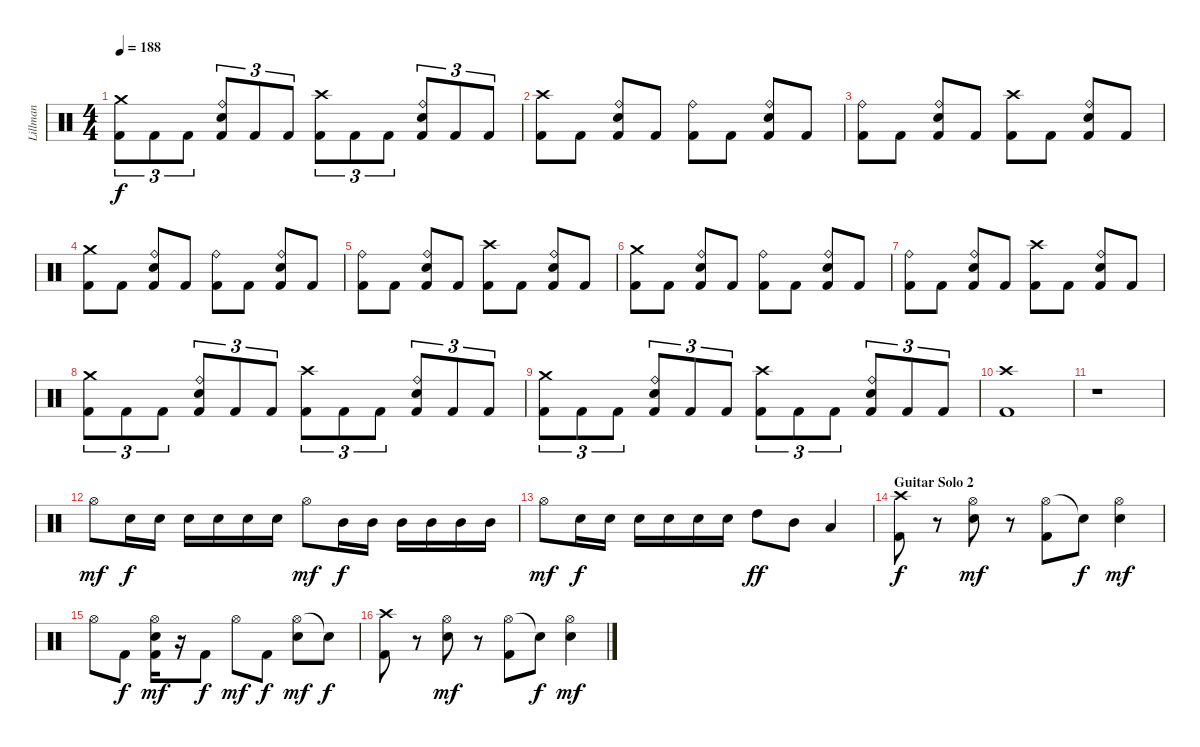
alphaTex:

\track ("Lillman" "Lillman") {instrument percussion}
\staff {score}
\articulation defaults
\ts (4 4)
\tempo 188
\clef neutral
\ks c
("Crash medium (hit)" "Kick (hit) 2").8{tu (3 2) dy f} "Kick (hit) 2".8{tu (3 2)} "Kick (hit) 2".8{tu (3 2)} ("Ride (bell)" "Snare (hit) 2" "Kick (hit) 2").8{tu (3 2)} "Kick (hit) 2".8{tu (3 2)} "Kick (hit) 2".8{tu (3 2)} ("Crash high (hit)" "Kick (hit) 2").8{tu (3 2)} "Kick (hit) 2".8{tu (3 2)} "Kick (hit) 2".8{tu (3 2)} ("Ride (bell)" "Snare (hit) 2" "Kick (hit) 2").8{tu (3 2)} "Kick (hit) 2".8{tu (3 2)} "Kick (hit) 2".8{tu (3 2)} |
("Crash high (hit)" "Kick (hit) 2").8 "Kick (hit) 2".8 ("Ride (bell)" "Snare (hit) 2" "Kick (hit) 2").8 "Kick (hit) 2".8 ("Ride (bell)" "Kick (hit) 2").8 "Kick (hit) 2".8 ("Ride (bell)" "Snare (hit) 2" "Kick (hit) 2").8 "Kick (hit) 2".8 |
("Ride (bell)" "Kick (hit) 2").8 "Kick (hit) 2".8 ("Ride (bell)" "Snare (hit) 2" "Kick (hit) 2").8 "Kick (hit) 2".8 ("Crash high (hit)" "Kick (hit) 2").8 "Kick (hit) 2".8 ("Ride (bell)" "Snare (hit) 2" "Kick (hit) 2").8 "Kick (hit) 2".8 |
("Crash medium (hit)" "Kick (hit) 2").8 "Kick (hit) 2".8 ("Ride (bell)" "Snare (hit) 2" "Kick (hit) 2").8 "Kick (hit) 2".8 ("Ride (bell)" "Kick (hit) 2").8 "Kick (hit) 2".8 ("Ride (bell)" "Snare (hit) 2" "Kick (hit) 2").8 "Kick (hit) 2".8 |
("Ride (bell)" "Kick (hit) 2").8 "Kick (hit) 2".8 ("Ride (bell)" "Snare (hit) 2" "Kick (hit) 2").8 "Kick (hit) 2".8 ("Crash high (hit)" "Kick (hit) 2").8 "Kick (hit) 2".8 ("Ride (bell)" "Snare (hit) 2" "Kick (hit) 2").8 "Kick (hit) 2".8 |
("Crash medium (hit)" "Kick (hit) 2").8 "Kick (hit) 2".8 ("Ride (bell)" "Snare (hit) 2" "Kick (hit) 2").8 "Kick (hit) 2".8 ("Ride (bell)" "Kick (hit) 2").8 "Kick (hit) 2".8 ("Ride (bell)" "Snare (hit) 2" "Kick (hit) 2").8 "Kick (hit) 2".8 |
("Ride (bell)" "Kick (hit) 2").8 "Kick (hit) 2".8 ("Ride (bell)" "Snare (hit) 2" "Kick (hit) 2").8 "Kick (hit) 2".8 ("Crash high (hit)" "Kick (hit) 2").8 "Kick (hit) 2".8 ("Ride (bell)" "Snare (hit) 2" "Kick (hit) 2").8 "Kick (hit) 2".8 |
("Crash medium (hit)" "Kick (hit) 2").8{tu (3 2)} "Kick (hit) 2".8{tu (3 2)} "Kick (hit) 2".8{tu (3 2)} ("Ride (bell)" "Snare (hit) 2" "Kick (hit) 2").8{tu (3 2)} "Kick (hit) 2".8{tu (3 2)} "Kick (hit) 2".8{tu (3 2)} ("Crash high (hit)" "Kick (hit) 2").8{tu (3 2)} "Kick (hit) 2".8{tu (3 2)} "Kick (hit) 2".8{tu (3 2)} ("Ride (bell)" "Snare (hit) 2" "Kick (hit) 2").8{tu (3 2)} "Kick (hit) 2".8{tu (3 2)} "Kick (hit) 2".8{tu (3 2)} |
("Crash medium (hit)" "Kick (hit) 2").8{tu (3 2)} "Kick (hit) 2".8{tu (3 2)} "Kick (hit) 2".8{tu (3 2)} ("Ride (bell)" "Snare (hit) 2" "Kick (hit) 2").8{tu (3 2)} "Kick (hit) 2".8{tu (3 2)} "Kick (hit) 2".8{tu (3 2)} ("Crash high (hit)" "Kick (hit) 2").8{tu (3 2)} "Kick (hit) 2".8{tu (3 2)} "Kick (hit) 2".8{tu (3 2)} ("Ride (bell)" "Snare (hit) 2" "Kick (hit) 2").8{tu (3 2)} "Kick (hit) 2".8{tu (3 2)} "Kick (hit) 2".8{tu (3 2)} |
("Crash high (hit)" "Kick (hit) 2").1 |
r.1 |
"Hi-Hat (open)".8{dy mf} "Snare (hit) 2".16{dy f} "Snare (hit) 2".16 "Snare (hit) 2".16 "Snare (hit) 2".16 "Snare (hit) 2".16 "Snare (hit) 2".16 "Hi-Hat (open)".8{dy mf} "Mid Tom (hit)".16{dy f} "Mid Tom (hit)".16 "Mid Tom (hit)".16 "Mid Tom (hit)".16 "Mid Tom (hit)".16 "Mid Tom (hit)".16 |
"Hi-Hat (open)".8{dy mf} "Snare (hit) 2".16{dy f} "Snare (hit) 2".16 "Snare (hit) 2".16 "Snare (hit) 2".16 "Snare (hit) 2".16 "Snare (hit) 2".16 "High Tom (hit)".8{dy ff} "Mid Tom (hit)".8 "Low Tom (hit)".4 |
\section ("" "Guitar Solo 2")
("Crash high (hit)" "Kick (hit) 2").8{dy f} r.8 ("Hi-Hat (open)" "Snare (hit) 2").8{dy mf} r.8 ("Hi-Hat (open)" "Kick (hit) 2").8 "Snare (hit)"{t}.8{dy f} ("Hi-Hat (open)" "Snare (hit) 2").4{dy mf} |
"Hi-Hat (open)".8 "Kick (hit) 2".8{dy f} ("Hi-Hat (open)" "Snare (hit) 2" "Kick (hit) 2").16{dy mf} r.16 "Kick (hit) 2".8{dy f} "Hi-Hat (open)".8{dy mf} "Kick (hit) 2".8{dy f} ("Hi-Hat (open)" "Snare (hit) 2").8{dy mf} "Snare (hit)"{t}.8{dy f} |
("Crash high (hit)" "Kick (hit) 2").8 r.8 ("Hi-Hat (open)" "Snare (hit) 2").8{dy mf} r.8 ("Hi-Hat (open)" "Kick (hit) 2").8 "Snare (hit)"{t}.8{dy f} ("Hi-Hat (open)" "Snare (hit) 2").4{dy mf}
